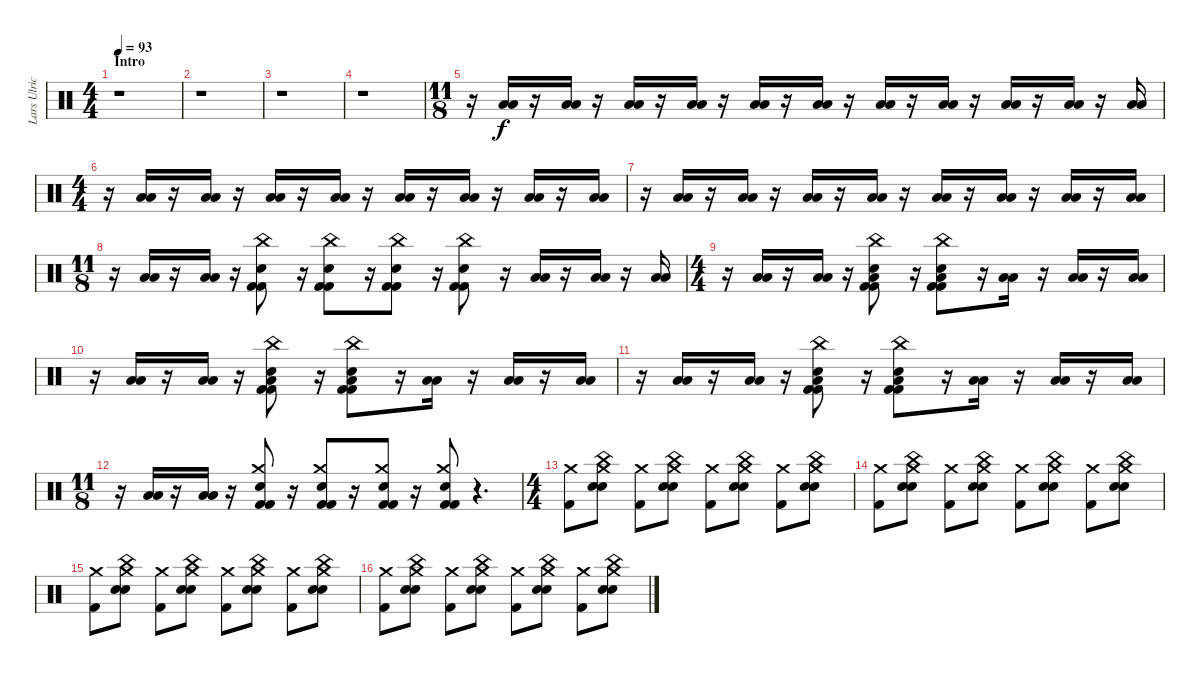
\track ("Lars Ulrich" "Lars Ulric") {instrument percussion}
\staff {score}
\articulation defaults
\ts (4 4)
\section ("" "Intro")
\tempo 93
\clef neutral
\ks c
r.1{dy f} |
r.1 |
r.1 |
r.1 |
\ts (11 8)
r.16 ("Low Tom (hit)" "Low Floor Tom (hit)").16 r.16 ("Low Tom (hit)" "Low Floor Tom (hit)").16 r.16 ("Low Tom (hit)" "Low Floor Tom (hit)").16 r.16 ("Low Tom (hit)" "Low Floor Tom (hit)").16 r.16 ("Low Tom (hit)" "Low Floor Tom (hit)").16 r.16 ("Low Tom (hit)" "Low Floor Tom (hit)").16 r.16 ("Low Tom (hit)" "Low Floor Tom (hit)").16 r.16 ("Low Tom (hit)" "Low Floor Tom (hit)").16 r.16 ("Low Tom (hit)" "Low Floor Tom (hit)").16 r.16 ("Low Tom (hit)" "Low Floor Tom (hit)").16 r.16 ("Low Tom (hit)" "Low Floor Tom (hit)").16 |
\ts (4 4)
r.16 ("Low Tom (hit)" "Low Floor Tom (hit)").16 r.16 ("Low Tom (hit)" "Low Floor Tom (hit)").16 r.16 ("Low Tom (hit)" "Low Floor Tom (hit)").16 r.16 ("Low Tom (hit)" "Low Floor Tom (hit)").16 r.16 ("Low Tom (hit)" "Low Floor Tom (hit)").16 r.16 ("Low Tom (hit)" "Low Floor Tom (hit)").16 r.16 ("Low Tom (hit)" "Low Floor Tom (hit)").16 r.16 ("Low Tom (hit)" "Low Floor Tom (hit)").16 |
r.16 ("Low Tom (hit)" "Low Floor Tom (hit)").16 r.16 ("Low Tom (hit)" "Low Floor Tom (hit)").16 r.16 ("Low Tom (hit)" "Low Floor Tom (hit)").16 r.16 ("Low Tom (hit)" "Low Floor Tom (hit)").16 r.16 ("Low Tom (hit)" "Low Floor Tom (hit)").16 r.16 ("Low Tom (hit)" "Low Floor Tom (hit)").16 r.16 ("Low Tom (hit)" "Low Floor Tom (hit)").16 r.16 ("Low Tom (hit)" "Low Floor Tom (hit)").16 |
\ts (11 8)
r.16 ("Low Tom (hit)" "Low Floor Tom (hit)").16 r.16 ("Low Tom (hit)" "Low Floor Tom (hit)").16 r.16 ("China (hit)" "Kick (hit) 2" "Kick (hit) 2" "Electric Snare (hit)").8 r.16 ("China (hit)" "Kick (hit) 2" "Kick (hit) 2" "Electric Snare (hit)").8 r.16 ("China (hit)" "Kick (hit) 2" "Kick (hit) 2" "Electric Snare (hit)").8 r.16 ("China (hit)" "Kick (hit) 2" "Kick (hit) 2" "Electric Snare (hit)").8 r.16 ("Low Tom (hit)" "Low Floor Tom (hit)").16 r.16 ("Low Tom (hit)" "Low Floor Tom (hit)").16 r.16 ("Low Tom (hit)" "Low Floor Tom (hit)").16 |
\ts (4 4)
r.16 ("Low Tom (hit)" "Low Floor Tom (hit)").16 r.16 ("Low Tom (hit)" "Low Floor Tom (hit)").16 r.16 ("China (hit)" "Kick (hit) 2" "Kick (hit) 2" "Electric Snare (hit)" "Low Floor Tom (hit)").8 r.16 ("China (hit)" "Kick (hit) 2" "Kick (hit) 2" "Electric Snare (hit)" "Low Floor Tom (hit)").8 r.16 ("Low Tom (hit)" "Low Floor Tom (hit)").16 r.16 ("Low Tom (hit)" "Low Floor Tom (hit)").16 r.16 ("Low Tom (hit)" "Low Floor Tom (hit)").16 |
r.16 ("Low Tom (hit)" "Low Floor Tom (hit)").16 r.16 ("Low Tom (hit)" "Low Floor Tom (hit)").16 r.16 ("China (hit)" "Kick (hit) 2" "Kick (hit) 2" "Electric Snare (hit)" "Low Floor Tom (hit)").8 r.16 ("China (hit)" "Kick (hit) 2" "Kick (hit) 2" "Electric Snare (hit)" "Low Floor Tom (hit)").8 r.16 ("Low Tom (hit)" "Low Floor Tom (hit)").16 r.16 ("Low Tom (hit)" "Low Floor Tom (hit)").16 r.16 ("Low Tom (hit)" "Low Floor Tom (hit)").16 |
r.16 ("Low Tom (hit)" "Low Floor Tom (hit)").16 r.16 ("Low Tom (hit)" "Low Floor Tom (hit)").16 r.16 ("China (hit)" "Kick (hit) 2" "Kick (hit) 2" "Electric Snare (hit)" "Low Floor Tom (hit)").8 r.16 ("China (hit)" "Kick (hit) 2" "Kick (hit) 2" "Electric Snare (hit)" "Low Floor Tom (hit)").8 r.16 ("Low Tom (hit)" "Low Floor Tom (hit)").16 r.16 ("Low Tom (hit)" "Low Floor Tom (hit)").16 r.16 ("Low Tom (hit)" "Low Floor Tom (hit)").16 |
\ts (11 8)
r.16 ("Low Tom (hit)" "Low Floor Tom (hit)").16 r.16 ("Low Tom (hit)" "Low Floor Tom (hit)").16 r.16 ("Crash medium (hit)" "Kick (hit) 2" "Kick (hit) 2" "Snare (hit) 2").8 r.16 ("Crash medium (hit)" "Kick (hit) 2" "Kick (hit) 2" "Snare (hit) 2").8 r.16 ("Crash medium (hit)" "Kick (hit) 2" "Kick (hit) 2" "Snare (hit) 2").8 r.16 ("Crash medium (hit)" "Kick (hit) 2" "Kick (hit) 2" "Snare (hit) 2").8 r.4{d} |
\ts (4 4)
("Crash medium (hit)" "Kick (hit) 2").8 ("Crash medium (hit)" "China (hit)" "Electric Snare (hit)" "Snare (hit) 2").8 ("Crash medium (hit)" "Kick (hit) 2").8 ("Crash medium (hit)" "China (hit)" "Electric Snare (hit)" "Snare (hit) 2").8 ("Crash medium (hit)" "Kick (hit) 2").8 ("Crash medium (hit)" "China (hit)" "Electric Snare (hit)" "Snare (hit) 2").8 ("Crash medium (hit)" "Kick (hit) 2").8 ("Crash medium (hit)" "China (hit)" "Electric Snare (hit)" "Snare (hit) 2").8 |
("Crash medium (hit)" "Kick (hit) 2").8 ("Crash medium (hit)" "China (hit)" "Electric Snare (hit)" "Snare (hit) 2").8 ("Crash medium (hit)" "Kick (hit) 2").8 ("Crash medium (hit)" "China (hit)" "Electric Snare (hit)" "Snare (hit) 2").8 ("Crash medium (hit)" "Kick (hit) 2").8 ("Crash medium (hit)" "China (hit)" "Electric Snare (hit)" "Snare (hit) 2").8 ("Crash medium (hit)" "Kick (hit) 2").8 ("Crash medium (hit)" "China (hit)" "Electric Snare (hit)" "Snare (hit) 2").8 |
("Crash medium (hit)" "Kick (hit) 2").8 ("Crash medium (hit)" "China (hit)" "Electric Snare (hit)" "Snare (hit) 2").8 ("Crash medium (hit)" "Kick (hit) 2").8 ("Crash medium (hit)" "China (hit)" "Electric Snare (hit)" "Snare (hit) 2").8 ("Crash medium (hit)" "Kick (hit) 2").8 ("Crash medium (hit)" "China (hit)" "Electric Snare (hit)" "Snare (hit) 2").8 ("Crash medium (hit)" "Kick (hit) 2").8 ("Crash medium (hit)" "China (hit)" "Electric Snare (hit)" "Snare (hit) 2").8 |
("Crash medium (hit)" "Kick (hit) 2").8 ("Crash medium (hit)" "China (hit)" "Electric Snare (hit)" "Snare (hit) 2").8 ("Crash medium (hit)" "Kick (hit) 2").8 ("Crash medium (hit)" "China (hit)" "Electric Snare (hit)" "Snare (hit) 2").8 ("Crash medium (hit)" "Kick (hit) 2").8 ("Crash medium (hit)" "China (hit)" "Electric Snare (hit)" "Snare (hit) 2").8 ("Crash medium (hit)" "Kick (hit) 2").8 ("Crash medium (hit)" "China (hit)" "Electric Snare (hit)" "Snare (hit) 2").8
